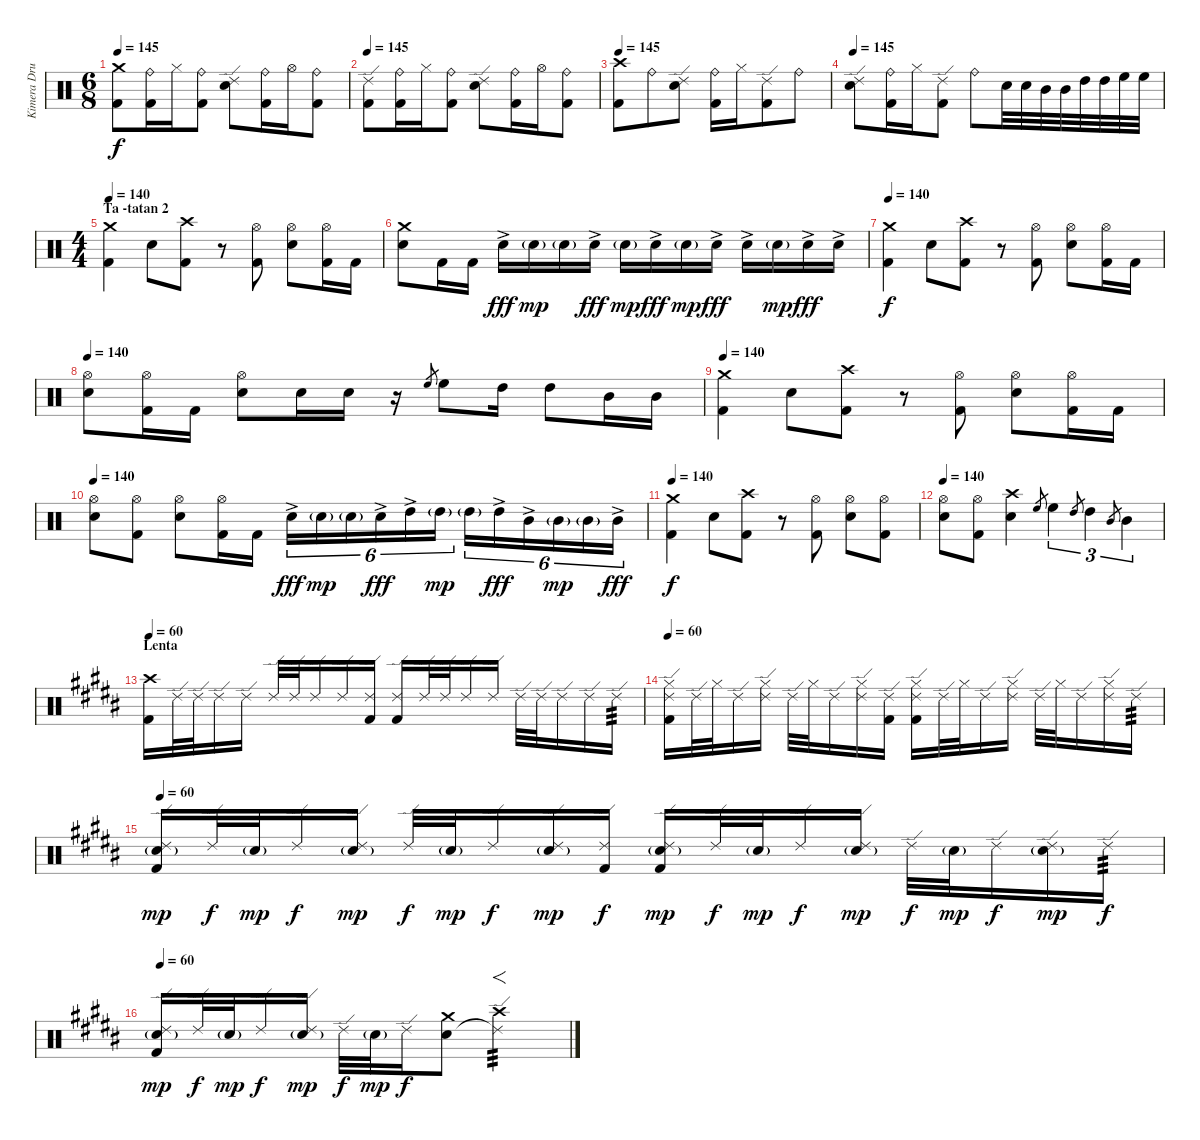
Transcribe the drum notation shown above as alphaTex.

\track ("Kimera Drummer" "Kimera Dru") {instrument percussion}
\staff {score}
\articulation defaults
\ts (6 8)
\tempo 145
\clef neutral
\ks c
("Crash medium (hit)" "Kick (hit) 2").8{dy f} ("Ride (bell)" "Kick (hit) 2").16 "Hi-Hat (closed)".16 ("Ride (bell)" "Kick (hit) 2").8 ("Ride (edge) 2" "Electric Snare (hit)").8 ("Ride (bell)" "Kick (hit) 2").16 "Hi-Hat (open)".16 ("Ride (bell)" "Kick (hit) 2").8 |
\tempo 145
("Ride (edge) 2" "Kick (hit) 2").8 ("Ride (bell)" "Kick (hit) 2").16 "Hi-Hat (closed)".16 ("Ride (bell)" "Kick (hit) 2").8 ("Ride (edge) 2" "Electric Snare (hit)").8 ("Ride (bell)" "Kick (hit) 2").16 "Hi-Hat (open)".16 ("Ride (bell)" "Kick (hit) 2").8 |
\tempo 145
("Crash high (hit)" "Kick (hit) 2").8 "Ride (bell)".8 ("Ride (edge) 2" "Electric Snare (hit)").8 ("Ride (bell)" "Kick (hit) 2").16 "Hi-Hat (closed)".16 ("Ride (edge) 2" "Kick (hit) 2").8 "Ride (bell)".8 |
\tempo 145
("Ride (edge) 2" "Electric Snare (hit)").8 ("Ride (bell)" "Kick (hit) 2").16 "Hi-Hat (closed)".16 ("Ride (edge) 2" "Kick (hit) 2").8 "Ride (bell)".8 "Electric Snare (hit)".32 "Electric Snare (hit)".32 "Mid Tom (hit)".32 "Mid Tom (hit)".32 "High Tom (hit)".32 "High Tom (hit)".32 "High Floor Tom (hit)".32 "High Floor Tom (hit)".32 |
\ts (4 4)
\section ("" "Ta -tatan 2")
\tempo 140
("Crash medium (hit)" "Kick (hit) 2").4 "Electric Snare (hit)".8 ("Crash high (hit)" "Kick (hit) 2").8 r.8 ("Hi-Hat (open)" "Kick (hit) 2").8 ("Hi-Hat (open)" "Electric Snare (hit)").8 ("Hi-Hat (open)" "Kick (hit) 2").16 "Kick (hit) 2".16 |
("Crash medium (hit)" "Electric Snare (hit)").8 "Kick (hit) 2".16 "Kick (hit) 2".16 "Electric Snare (hit)"{ac}.16{dy fff} "Electric Snare (hit)"{g}.16{dy mp} "Electric Snare (hit)"{g}.16 "Electric Snare (hit)"{ac}.16{dy fff} "Electric Snare (hit)"{g}.16{dy mp} "Electric Snare (hit)"{ac}.16{dy fff} "Electric Snare (hit)"{g}.16{dy mp} "Electric Snare (hit)"{ac}.16{dy fff} "Electric Snare (hit)"{ac}.16 "Electric Snare (hit)"{g}.16{dy mp} "Electric Snare (hit)"{ac}.16{dy fff} "Electric Snare (hit)"{ac}.16 |
\tempo 140
("Crash medium (hit)" "Kick (hit) 2").4{dy f} "Electric Snare (hit)".8 ("Crash high (hit)" "Kick (hit) 2").8 r.8 ("Hi-Hat (open)" "Kick (hit) 2").8 ("Hi-Hat (open)" "Electric Snare (hit)").8 ("Hi-Hat (open)" "Kick (hit) 2").16 "Kick (hit) 2".16 |
\tempo 140
("Hi-Hat (open)" "Electric Snare (hit)").8 ("Hi-Hat (open)" "Kick (hit) 2").16 "Kick (hit) 2".16 ("Hi-Hat (open)" "Electric Snare (hit)").8 "Electric Snare (hit)".16 "Electric Snare (hit)".16 r.16 "High Floor Tom (hit)".8{gr} "High Floor Tom (hit)".8 "High Tom (hit)".16 "High Tom (hit)".8 "Mid Tom (hit)".16 "Mid Tom (hit)".16 |
\tempo 140
("Crash medium (hit)" "Kick (hit) 2").4 "Electric Snare (hit)".8 ("Crash high (hit)" "Kick (hit) 2").8 r.8 ("Hi-Hat (open)" "Kick (hit) 2").8 ("Hi-Hat (open)" "Electric Snare (hit)").8 ("Hi-Hat (open)" "Kick (hit) 2").16 "Kick (hit) 2".16 |
\tempo 140
("Hi-Hat (open)" "Electric Snare (hit)").8 ("Hi-Hat (open)" "Kick (hit) 2").8 ("Hi-Hat (open)" "Electric Snare (hit)").8 ("Hi-Hat (open)" "Kick (hit) 2").16 "Kick (hit) 2".16 "Electric Snare (hit)"{ac}.16{tu (6 4) dy fff} "Electric Snare (hit)"{g}.16{tu (6 4) dy mp} "Electric Snare (hit)"{g}.16{tu (6 4)} "Electric Snare (hit)"{ac}.16{tu (6 4) dy fff} "High Tom (hit)"{ac}.16{tu (6 4)} "High Tom (hit)"{g}.16{tu (6 4) dy mp} "High Tom (hit)"{g}.16{tu (6 4)} "High Tom (hit)"{ac}.16{tu (6 4) dy fff} "Mid Tom (hit)"{ac}.16{tu (6 4)} "Mid Tom (hit)"{g}.16{tu (6 4) dy mp} "Mid Tom (hit)"{g}.16{tu (6 4)} "Mid Tom (hit)"{ac}.16{tu (6 4) dy fff} |
\tempo 140
("Crash medium (hit)" "Kick (hit) 2").4{dy f} "Electric Snare (hit)".8 ("Crash high (hit)" "Kick (hit) 2").8 r.8 ("Hi-Hat (open)" "Kick (hit) 2").8 ("Hi-Hat (open)" "Electric Snare (hit)").8 ("Hi-Hat (open)" "Kick (hit) 2").8 |
\tempo 140
("Hi-Hat (open)" "Electric Snare (hit)").8 ("Hi-Hat (open)" "Kick (hit) 2").8 ("Crash high (hit)" "Electric Snare (hit)").4 "High Floor Tom (hit)".8{gr} "High Floor Tom (hit)".4{tu (3 2)} "High Tom (hit)".8{gr} "High Tom (hit)".4{tu (3 2)} "Mid Tom (hit)".8{gr} "Mid Tom (hit)".4{tu (3 2)} |
\section ("" "Lenta")
\tempo 60
\ks b
("Crash high (hit)" "Kick (hit) 2").16 "Ride (edge) 2".32 "Ride (edge) 2".32 "Ride (edge) 2".16 "Ride (edge) 2".16 "Ride (edge) 2".32 "Ride (edge) 2".32 "Ride (edge) 2".16 "Ride (edge) 2".16 ("Ride (edge) 2" "Kick (hit) 2").16 ("Ride (edge) 2" "Kick (hit) 2").16 "Ride (edge) 2".32 "Ride (edge) 2".32 "Ride (edge) 2".16 "Ride (edge) 2".16 "Ride (edge) 2".32 "Ride (edge) 2".32 "Ride (edge) 2".16 "Ride (edge) 2".16 "Ride (edge) 2".16{tp 3} |
\tempo 60
("Ride (edge) 2" "Hi-Hat (closed)" "Kick (hit) 2").16 "Ride (edge) 2".32 "Hi-Hat (closed)".32 "Ride (edge) 2".16 ("Ride (edge) 2" "Hi-Hat (closed)").16 "Ride (edge) 2".32 "Hi-Hat (closed)".32 "Ride (edge) 2".16 ("Ride (edge) 2" "Hi-Hat (closed)").16 ("Ride (edge) 2" "Kick (hit) 2").16 ("Ride (edge) 2" "Hi-Hat (closed)" "Kick (hit) 2").16 "Ride (edge) 2".32 "Hi-Hat (closed)".32 "Ride (edge) 2".16 ("Ride (edge) 2" "Hi-Hat (closed)").16 "Ride (edge) 2".32 "Hi-Hat (closed)".32 "Ride (edge) 2".16 ("Ride (edge) 2" "Hi-Hat (closed)").16 "Ride (edge) 2".16{tp 3} |
\tempo 60
("Ride (edge) 2" "Electric Snare (hit)"{g} "Kick (hit) 2").16{dy mp} "Ride (edge) 2".32{dy f} "Electric Snare (hit)"{g}.32{dy mp} "Ride (edge) 2".16{dy f} ("Ride (edge) 2" "Electric Snare (hit)"{g}).16{dy mp} "Ride (edge) 2".32{dy f} "Electric Snare (hit)"{g}.32{dy mp} "Ride (edge) 2".16{dy f} ("Ride (edge) 2" "Electric Snare (hit)"{g}).16{dy mp} ("Ride (edge) 2" "Kick (hit) 2").16{dy f} ("Ride (edge) 2" "Electric Snare (hit)"{g} "Kick (hit) 2").16{dy mp} "Ride (edge) 2".32{dy f} "Electric Snare (hit)"{g}.32{dy mp} "Ride (edge) 2".16{dy f} ("Ride (edge) 2" "Electric Snare (hit)"{g}).16{dy mp} "Ride (edge) 2".32{dy f} "Electric Snare (hit)"{g}.32{dy mp} "Ride (edge) 2".16{dy f} ("Ride (edge) 2" "Electric Snare (hit)"{g}).16{dy mp} "Ride (edge) 2".16{tp 3 dy f} |
\tempo 60
("Ride (edge) 2" "Electric Snare (hit)"{g} "Kick (hit) 2").16{dy mp} "Ride (edge) 2".32{dy f} "Electric Snare (hit)"{g}.32{dy mp} "Ride (edge) 2".16{dy f} ("Ride (edge) 2" "Electric Snare (hit)"{g}).16{dy mp} "Ride (edge) 2".32{dy f} "Electric Snare (hit)"{g}.32{dy mp} "Ride (edge) 2".16{dy f} ("Crash medium (hit)" "Electric Snare (hit)").8 ("Crash high (hit)" "Ride (edge) 2"{t}).2{f tp 3}
